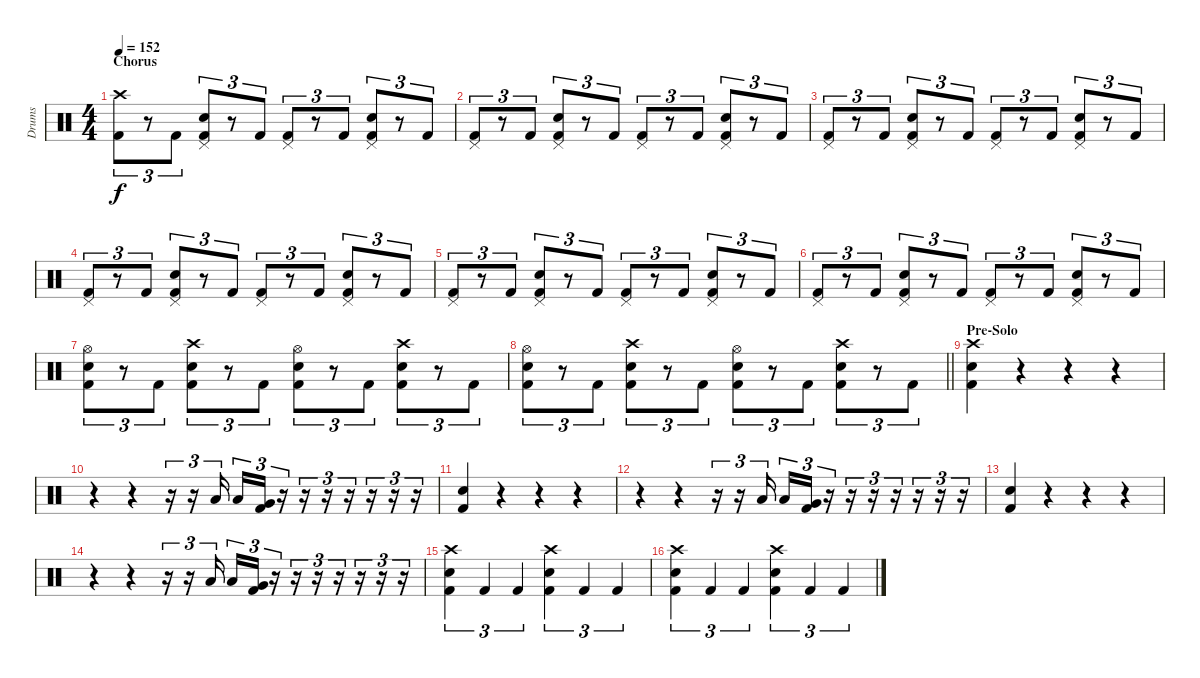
\track ("Drums" "Drums") {instrument percussion}
\staff {score}
\articulation defaults
\ts (4 4)
\section ("" "Chorus")
\tempo 152
\clef neutral
\ks c
("Crash high (hit)" "Kick (hit) 2").8{tu (3 2) dy f} r.8{tu (3 2)} "Kick (hit) 2".8{tu (3 2)} ("Pedal Hi-Hat (hit)" "Snare (hit) 2" "Kick (hit) 2").8{tu (3 2)} r.8{tu (3 2)} "Kick (hit) 2".8{tu (3 2)} ("Pedal Hi-Hat (hit)" "Kick (hit) 2").8{tu (3 2)} r.8{tu (3 2)} "Kick (hit) 2".8{tu (3 2)} ("Pedal Hi-Hat (hit)" "Snare (hit) 2" "Kick (hit) 2").8{tu (3 2)} r.8{tu (3 2)} "Kick (hit) 2".8{tu (3 2)} |
("Pedal Hi-Hat (hit)" "Kick (hit) 2").8{tu (3 2)} r.8{tu (3 2)} "Kick (hit) 2".8{tu (3 2)} ("Pedal Hi-Hat (hit)" "Snare (hit) 2" "Kick (hit) 2").8{tu (3 2)} r.8{tu (3 2)} "Kick (hit) 2".8{tu (3 2)} ("Pedal Hi-Hat (hit)" "Kick (hit) 2").8{tu (3 2)} r.8{tu (3 2)} "Kick (hit) 2".8{tu (3 2)} ("Pedal Hi-Hat (hit)" "Snare (hit) 2" "Kick (hit) 2").8{tu (3 2)} r.8{tu (3 2)} "Kick (hit) 2".8{tu (3 2)} |
("Pedal Hi-Hat (hit)" "Kick (hit) 2").8{tu (3 2)} r.8{tu (3 2)} "Kick (hit) 2".8{tu (3 2)} ("Pedal Hi-Hat (hit)" "Snare (hit) 2" "Kick (hit) 2").8{tu (3 2)} r.8{tu (3 2)} "Kick (hit) 2".8{tu (3 2)} ("Pedal Hi-Hat (hit)" "Kick (hit) 2").8{tu (3 2)} r.8{tu (3 2)} "Kick (hit) 2".8{tu (3 2)} ("Pedal Hi-Hat (hit)" "Snare (hit) 2" "Kick (hit) 2").8{tu (3 2)} r.8{tu (3 2)} "Kick (hit) 2".8{tu (3 2)} |
("Pedal Hi-Hat (hit)" "Kick (hit) 2").8{tu (3 2)} r.8{tu (3 2)} "Kick (hit) 2".8{tu (3 2)} ("Pedal Hi-Hat (hit)" "Snare (hit) 2" "Kick (hit) 2").8{tu (3 2)} r.8{tu (3 2)} "Kick (hit) 2".8{tu (3 2)} ("Pedal Hi-Hat (hit)" "Kick (hit) 2").8{tu (3 2)} r.8{tu (3 2)} "Kick (hit) 2".8{tu (3 2)} ("Pedal Hi-Hat (hit)" "Snare (hit) 2" "Kick (hit) 2").8{tu (3 2)} r.8{tu (3 2)} "Kick (hit) 2".8{tu (3 2)} |
("Pedal Hi-Hat (hit)" "Kick (hit) 2").8{tu (3 2)} r.8{tu (3 2)} "Kick (hit) 2".8{tu (3 2)} ("Pedal Hi-Hat (hit)" "Snare (hit) 2" "Kick (hit) 2").8{tu (3 2)} r.8{tu (3 2)} "Kick (hit) 2".8{tu (3 2)} ("Pedal Hi-Hat (hit)" "Kick (hit) 2").8{tu (3 2)} r.8{tu (3 2)} "Kick (hit) 2".8{tu (3 2)} ("Pedal Hi-Hat (hit)" "Snare (hit) 2" "Kick (hit) 2").8{tu (3 2)} r.8{tu (3 2)} "Kick (hit) 2".8{tu (3 2)} |
("Pedal Hi-Hat (hit)" "Kick (hit) 2").8{tu (3 2)} r.8{tu (3 2)} "Kick (hit) 2".8{tu (3 2)} ("Pedal Hi-Hat (hit)" "Snare (hit) 2" "Kick (hit) 2").8{tu (3 2)} r.8{tu (3 2)} "Kick (hit) 2".8{tu (3 2)} ("Pedal Hi-Hat (hit)" "Kick (hit) 2").8{tu (3 2)} r.8{tu (3 2)} "Kick (hit) 2".8{tu (3 2)} ("Pedal Hi-Hat (hit)" "Snare (hit) 2" "Kick (hit) 2").8{tu (3 2)} r.8{tu (3 2)} "Kick (hit) 2".8{tu (3 2)} |
("Hi-Hat (open)" "Snare (hit) 2" "Kick (hit) 2").8{tu (3 2)} r.8{tu (3 2)} "Kick (hit) 2".8{tu (3 2)} ("Crash high (hit)" "Snare (hit) 2" "Kick (hit) 2").8{tu (3 2)} r.8{tu (3 2)} "Kick (hit) 2".8{tu (3 2)} ("Hi-Hat (open)" "Snare (hit) 2" "Kick (hit) 2").8{tu (3 2)} r.8{tu (3 2)} "Kick (hit) 2".8{tu (3 2)} ("Crash high (hit)" "Snare (hit) 2" "Kick (hit) 2").8{tu (3 2)} r.8{tu (3 2)} "Kick (hit) 2".8{tu (3 2)} |
\barLineRight lightlight
("Hi-Hat (open)" "Snare (hit) 2" "Kick (hit) 2").8{tu (3 2)} r.8{tu (3 2)} "Kick (hit) 2".8{tu (3 2)} ("Crash high (hit)" "Snare (hit) 2" "Kick (hit) 2").8{tu (3 2)} r.8{tu (3 2)} "Kick (hit) 2".8{tu (3 2)} ("Hi-Hat (open)" "Snare (hit) 2" "Kick (hit) 2").8{tu (3 2)} r.8{tu (3 2)} "Kick (hit) 2".8{tu (3 2)} ("Crash high (hit)" "Snare (hit) 2" "Kick (hit) 2").8{tu (3 2)} r.8{tu (3 2)} "Kick (hit) 2".8{tu (3 2)} |
\section ("" "Pre-Solo")
("Crash high (hit)" "Snare (hit) 2" "Kick (hit) 2").4 r.4 r.4 r.4 |
r.4 r.4 r.16{tu (3 2)} r.16{tu (3 2)} "Low Tom (hit)".16{tu (3 2) beam splitsecondary} "Low Tom (hit)".16{tu (3 2)} ("Very Low Tom (hit)" "Kick (hit) 2").16{tu (3 2)} r.16{tu (3 2)} r.16{tu (3 2)} r.16{tu (3 2)} r.16{tu (3 2)} r.16{tu (3 2)} r.16{tu (3 2)} r.16{tu (3 2)} |
("Snare (hit) 2" "Kick (hit) 2").4 r.4 r.4 r.4 |
r.4 r.4 r.16{tu (3 2)} r.16{tu (3 2)} "Low Tom (hit)".16{tu (3 2) beam splitsecondary} "Low Tom (hit)".16{tu (3 2)} ("Very Low Tom (hit)" "Kick (hit) 2").16{tu (3 2)} r.16{tu (3 2)} r.16{tu (3 2)} r.16{tu (3 2)} r.16{tu (3 2)} r.16{tu (3 2)} r.16{tu (3 2)} r.16{tu (3 2)} |
("Snare (hit) 2" "Kick (hit) 2").4 r.4 r.4 r.4 |
r.4 r.4 r.16{tu (3 2)} r.16{tu (3 2)} "Low Tom (hit)".16{tu (3 2) beam splitsecondary} "Low Tom (hit)".16{tu (3 2)} ("Very Low Tom (hit)" "Kick (hit) 2").16{tu (3 2)} r.16{tu (3 2)} r.16{tu (3 2)} r.16{tu (3 2)} r.16{tu (3 2)} r.16{tu (3 2)} r.16{tu (3 2)} r.16{tu (3 2)} |
("Crash high (hit)" "Snare (hit) 2" "Kick (hit) 2").4{tu (3 2)} "Kick (hit) 2".4{tu (3 2)} "Kick (hit) 2".4{tu (3 2)} ("Crash high (hit)" "Snare (hit) 2" "Kick (hit) 2").4{tu (3 2)} "Kick (hit) 2".4{tu (3 2)} "Kick (hit) 2".4{tu (3 2)} |
("Crash high (hit)" "Snare (hit) 2" "Kick (hit) 2").4{tu (3 2)} "Kick (hit) 2".4{tu (3 2)} "Kick (hit) 2".4{tu (3 2)} ("Crash high (hit)" "Snare (hit) 2" "Kick (hit) 2").4{tu (3 2)} "Kick (hit) 2".4{tu (3 2)} "Kick (hit) 2".4{tu (3 2)}
